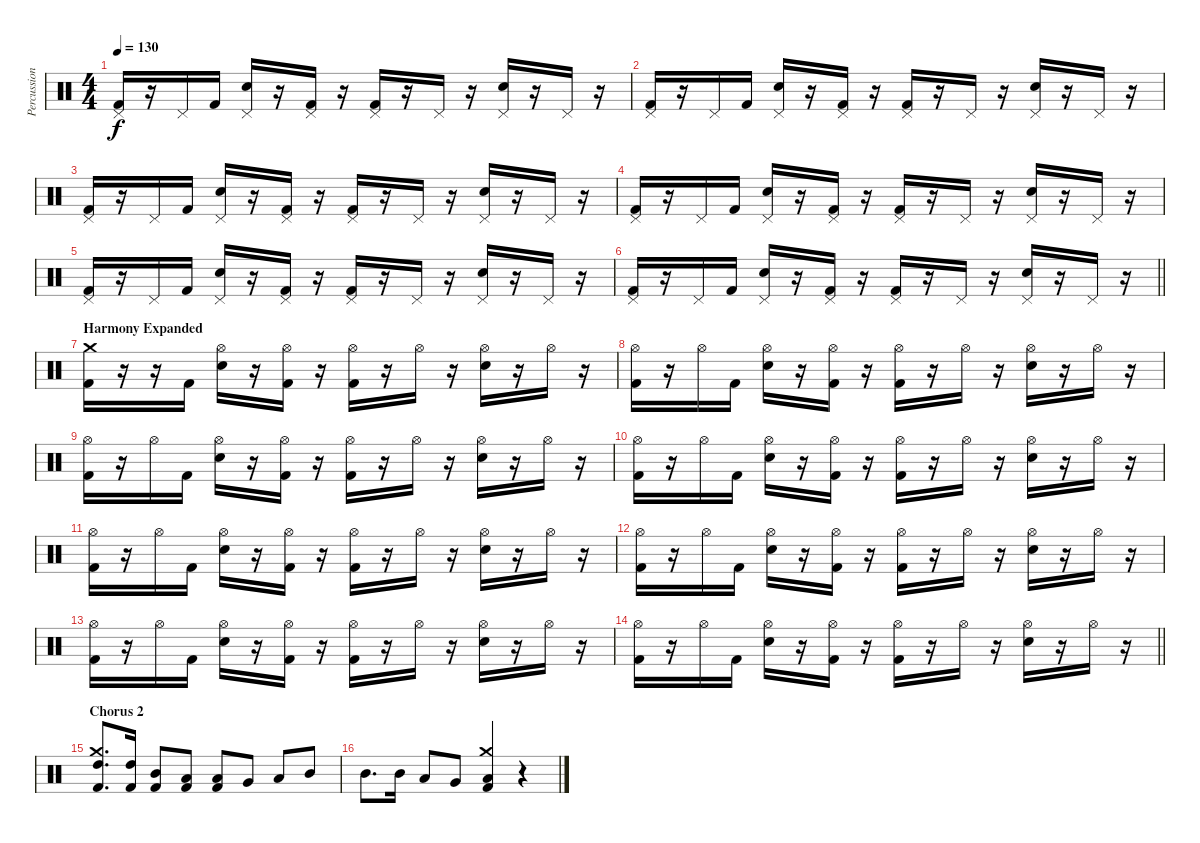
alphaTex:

\track ("Percussion" "Percussion") {instrument percussion}
\staff {score}
\articulation defaults
\ts (4 4)
\tempo 130
\clef neutral
\ks c
("Kick (hit) 2" "Pedal Hi-Hat (hit)").16{dy f} r.16 "Pedal Hi-Hat (hit)".16 "Kick (hit) 2".16 ("Electric Snare (hit)" "Pedal Hi-Hat (hit)").16 r.16 ("Kick (hit) 2" "Pedal Hi-Hat (hit)").16 r.16 ("Kick (hit) 2" "Pedal Hi-Hat (hit)").16 r.16 "Pedal Hi-Hat (hit)".16 r.16 ("Electric Snare (hit)" "Pedal Hi-Hat (hit)").16 r.16 "Pedal Hi-Hat (hit)".16 r.16 |
("Kick (hit) 2" "Pedal Hi-Hat (hit)").16 r.16 "Pedal Hi-Hat (hit)".16 "Kick (hit) 2".16 ("Electric Snare (hit)" "Pedal Hi-Hat (hit)").16 r.16 ("Kick (hit) 2" "Pedal Hi-Hat (hit)").16 r.16 ("Kick (hit) 2" "Pedal Hi-Hat (hit)").16 r.16 "Pedal Hi-Hat (hit)".16 r.16 ("Electric Snare (hit)" "Pedal Hi-Hat (hit)").16 r.16 "Pedal Hi-Hat (hit)".16 r.16 |
("Kick (hit) 2" "Pedal Hi-Hat (hit)").16 r.16 "Pedal Hi-Hat (hit)".16 "Kick (hit) 2".16 ("Electric Snare (hit)" "Pedal Hi-Hat (hit)").16 r.16 ("Kick (hit) 2" "Pedal Hi-Hat (hit)").16 r.16 ("Kick (hit) 2" "Pedal Hi-Hat (hit)").16 r.16 "Pedal Hi-Hat (hit)".16 r.16 ("Electric Snare (hit)" "Pedal Hi-Hat (hit)").16 r.16 "Pedal Hi-Hat (hit)".16 r.16 |
("Kick (hit) 2" "Pedal Hi-Hat (hit)").16 r.16 "Pedal Hi-Hat (hit)".16 "Kick (hit) 2".16 ("Electric Snare (hit)" "Pedal Hi-Hat (hit)").16 r.16 ("Kick (hit) 2" "Pedal Hi-Hat (hit)").16 r.16 ("Kick (hit) 2" "Pedal Hi-Hat (hit)").16 r.16 "Pedal Hi-Hat (hit)".16 r.16 ("Electric Snare (hit)" "Pedal Hi-Hat (hit)").16 r.16 "Pedal Hi-Hat (hit)".16 r.16 |
("Kick (hit) 2" "Pedal Hi-Hat (hit)").16 r.16 "Pedal Hi-Hat (hit)".16 "Kick (hit) 2".16 ("Electric Snare (hit)" "Pedal Hi-Hat (hit)").16 r.16 ("Kick (hit) 2" "Pedal Hi-Hat (hit)").16 r.16 ("Kick (hit) 2" "Pedal Hi-Hat (hit)").16 r.16 "Pedal Hi-Hat (hit)".16 r.16 ("Electric Snare (hit)" "Pedal Hi-Hat (hit)").16 r.16 "Pedal Hi-Hat (hit)".16 r.16 |
\barLineRight lightlight
("Kick (hit) 2" "Pedal Hi-Hat (hit)").16 r.16 "Pedal Hi-Hat (hit)".16 "Kick (hit) 2".16 ("Electric Snare (hit)" "Pedal Hi-Hat (hit)").16 r.16 ("Kick (hit) 2" "Pedal Hi-Hat (hit)").16 r.16 ("Kick (hit) 2" "Pedal Hi-Hat (hit)").16 r.16 "Pedal Hi-Hat (hit)".16 r.16 ("Electric Snare (hit)" "Pedal Hi-Hat (hit)").16 r.16 "Pedal Hi-Hat (hit)".16 r.16 |
\section ("" "Harmony Expanded")
("Kick (hit) 2" "Crash medium (hit)").16 r.16 r.16 "Kick (hit) 2".16 ("Electric Snare (hit)" "Hi-Hat (open)").16 r.16 ("Kick (hit) 2" "Hi-Hat (open)").16 r.16 ("Kick (hit) 2" "Hi-Hat (open)").16 r.16 "Hi-Hat (open)".16 r.16 ("Electric Snare (hit)" "Hi-Hat (open)").16 r.16 "Hi-Hat (open)".16 r.16 |
("Kick (hit) 2" "Hi-Hat (open)").16 r.16 "Hi-Hat (open)".16 "Kick (hit) 2".16 ("Electric Snare (hit)" "Hi-Hat (open)").16 r.16 ("Kick (hit) 2" "Hi-Hat (open)").16 r.16 ("Kick (hit) 2" "Hi-Hat (open)").16 r.16 "Hi-Hat (open)".16 r.16 ("Electric Snare (hit)" "Hi-Hat (open)").16 r.16 "Hi-Hat (open)".16 r.16 |
("Kick (hit) 2" "Hi-Hat (open)").16 r.16 "Hi-Hat (open)".16 "Kick (hit) 2".16 ("Electric Snare (hit)" "Hi-Hat (open)").16 r.16 ("Kick (hit) 2" "Hi-Hat (open)").16 r.16 ("Kick (hit) 2" "Hi-Hat (open)").16 r.16 "Hi-Hat (open)".16 r.16 ("Electric Snare (hit)" "Hi-Hat (open)").16 r.16 "Hi-Hat (open)".16 r.16 |
("Kick (hit) 2" "Hi-Hat (open)").16 r.16 "Hi-Hat (open)".16 "Kick (hit) 2".16 ("Electric Snare (hit)" "Hi-Hat (open)").16 r.16 ("Kick (hit) 2" "Hi-Hat (open)").16 r.16 ("Kick (hit) 2" "Hi-Hat (open)").16 r.16 "Hi-Hat (open)".16 r.16 ("Electric Snare (hit)" "Hi-Hat (open)").16 r.16 "Hi-Hat (open)".16 r.16 |
("Kick (hit) 2" "Hi-Hat (open)").16 r.16 "Hi-Hat (open)".16 "Kick (hit) 2".16 ("Electric Snare (hit)" "Hi-Hat (open)").16 r.16 ("Kick (hit) 2" "Hi-Hat (open)").16 r.16 ("Kick (hit) 2" "Hi-Hat (open)").16 r.16 "Hi-Hat (open)".16 r.16 ("Electric Snare (hit)" "Hi-Hat (open)").16 r.16 "Hi-Hat (open)".16 r.16 |
("Kick (hit) 2" "Hi-Hat (open)").16 r.16 "Hi-Hat (open)".16 "Kick (hit) 2".16 ("Electric Snare (hit)" "Hi-Hat (open)").16 r.16 ("Kick (hit) 2" "Hi-Hat (open)").16 r.16 ("Kick (hit) 2" "Hi-Hat (open)").16 r.16 "Hi-Hat (open)".16 r.16 ("Electric Snare (hit)" "Hi-Hat (open)").16 r.16 "Hi-Hat (open)".16 r.16 |
("Kick (hit) 2" "Hi-Hat (open)").16 r.16 "Hi-Hat (open)".16 "Kick (hit) 2".16 ("Electric Snare (hit)" "Hi-Hat (open)").16 r.16 ("Kick (hit) 2" "Hi-Hat (open)").16 r.16 ("Kick (hit) 2" "Hi-Hat (open)").16 r.16 "Hi-Hat (open)".16 r.16 ("Electric Snare (hit)" "Hi-Hat (open)").16 r.16 "Hi-Hat (open)".16 r.16 |
\barLineRight lightlight
("Kick (hit) 2" "Hi-Hat (open)").16 r.16 "Hi-Hat (open)".16 "Kick (hit) 2".16 ("Electric Snare (hit)" "Hi-Hat (open)").16 r.16 ("Kick (hit) 2" "Hi-Hat (open)").16 r.16 ("Kick (hit) 2" "Hi-Hat (open)").16 r.16 "Hi-Hat (open)".16 r.16 ("Electric Snare (hit)" "Hi-Hat (open)").16 r.16 "Hi-Hat (open)".16 r.16 |
\section ("" "Chorus 2")
("High Tom (hit)" "Crash medium (hit)" "Kick (hit) 2").8{d} ("High Tom (hit)" "Kick (hit) 2").16 ("Mid Tom (hit)" "Kick (hit) 2").8 ("Low Tom (hit)" "Kick (hit) 2").8 ("Low Floor Tom (hit)" "Kick (hit) 2").8 "Very Low Tom (hit)".8 "Low Tom (hit)".8 "Mid Tom (hit)".8 |
"Mid Tom (hit)".8{d} "Mid Tom (hit)".16 "Low Tom (hit)".8 "Very Low Tom (hit)".8 ("Low Floor Tom (hit)" "Crash medium (hit)" "Kick (hit) 2").4 r.4
